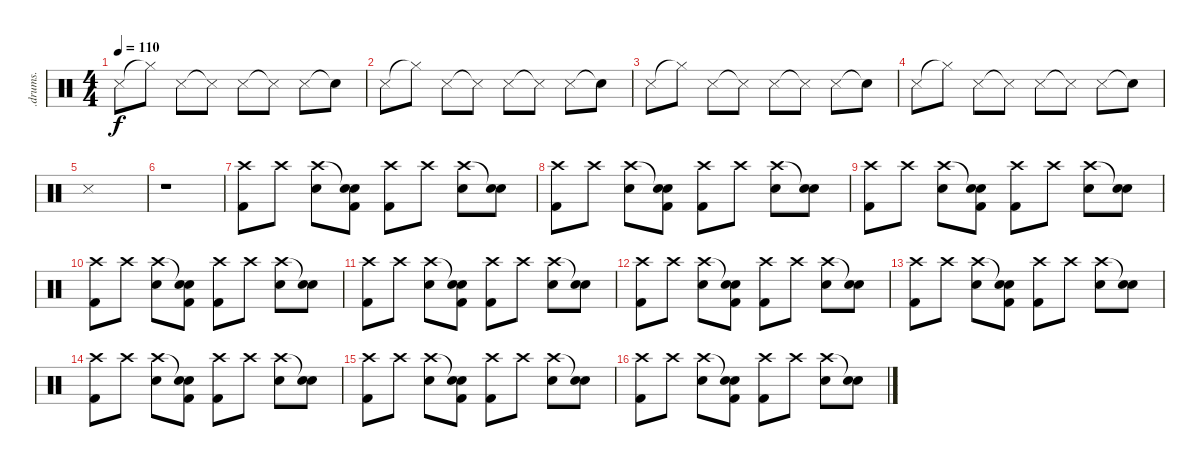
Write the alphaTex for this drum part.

\track (".drums." ".drums.") {instrument percussion}
\staff {score}
\articulation defaults
\ts (4 4)
\tempo 110
\clef neutral
\ks c "Snare (side stick) 3".8{dy f} "Hi-Hat (closed)"{t}.8 "Snare (side stick) 3".8 "Snare (side stick) 3"{t}.8 "Snare (side stick) 3".8 "Snare (side stick) 3"{t}.8 "Snare (side stick) 3".8 "Snare (hit)"{t}.8
|
"Snare (side stick) 3".8 "Hi-Hat (closed)"{t}.8 "Snare (side stick) 3".8 "Snare (side stick) 3"{t}.8 "Snare (side stick) 3".8 "Snare (side stick) 3"{t}.8 "Snare (side stick) 3".8 "Snare (hit)"{t}.8 |
"Snare (side stick) 3".8 "Hi-Hat (closed)"{t}.8 "Snare (side stick) 3".8 "Snare (side stick) 3"{t}.8 "Snare (side stick) 3".8 "Snare (side stick) 3"{t}.8 "Snare (side stick) 3".8 "Snare (hit)"{t}.8 |
"Snare (side stick) 3".8 "Hi-Hat (closed)"{t}.8 "Snare (side stick) 3".8 "Snare (side stick) 3"{t}.8 "Snare (side stick) 3".8 "Snare (side stick) 3"{t}.8 "Snare (side stick) 3".8 "Snare (hit)"{t}.8 |
"Snare (side stick) 3".1 |
r.1 |
("Crash high (hit)" "Kick (hit) 2").8 "Crash high (hit)".8 ("Crash high (hit)" "Snare (hit) 2").8 ("Snare (hit)"{t} "Snare (hit) 2" "Kick (hit) 2").8 ("Crash high (hit)" "Kick (hit) 2").8 "Crash high (hit)".8 ("Crash high (hit)" "Snare (hit) 2").8 ("Snare (hit)"{t} "Snare (hit) 2").8 |
("Crash high (hit)" "Kick (hit) 2").8 "Crash high (hit)".8 ("Crash high (hit)" "Snare (hit) 2").8 ("Snare (hit)"{t} "Snare (hit) 2" "Kick (hit) 2").8 ("Crash high (hit)" "Kick (hit) 2").8 "Crash high (hit)".8 ("Crash high (hit)" "Snare (hit) 2").8 ("Snare (hit)"{t} "Snare (hit) 2").8 |
("Crash high (hit)" "Kick (hit) 2").8 "Crash high (hit)".8 ("Crash high (hit)" "Snare (hit) 2").8 ("Snare (hit)"{t} "Snare (hit) 2" "Kick (hit) 2").8 ("Crash high (hit)" "Kick (hit) 2").8 "Crash high (hit)".8 ("Crash high (hit)" "Snare (hit) 2").8 ("Snare (hit)"{t} "Snare (hit) 2").8 |
("Crash high (hit)" "Kick (hit) 2").8 "Crash high (hit)".8 ("Crash high (hit)" "Snare (hit) 2").8 ("Snare (hit)"{t} "Snare (hit) 2" "Kick (hit) 2").8 ("Crash high (hit)" "Kick (hit) 2").8 "Crash high (hit)".8 ("Crash high (hit)" "Snare (hit) 2").8 ("Snare (hit)"{t} "Snare (hit) 2").8 |
("Crash high (hit)" "Kick (hit) 2").8 "Crash high (hit)".8 ("Crash high (hit)" "Snare (hit) 2").8 ("Snare (hit)"{t} "Snare (hit) 2" "Kick (hit) 2").8 ("Crash high (hit)" "Kick (hit) 2").8 "Crash high (hit)".8 ("Crash high (hit)" "Snare (hit) 2").8 ("Snare (hit)"{t} "Snare (hit) 2").8 |
("Crash high (hit)" "Kick (hit) 2").8 "Crash high (hit)".8 ("Crash high (hit)" "Snare (hit) 2").8 ("Snare (hit)"{t} "Snare (hit) 2" "Kick (hit) 2").8 ("Crash high (hit)" "Kick (hit) 2").8 "Crash high (hit)".8 ("Crash high (hit)" "Snare (hit) 2").8 ("Snare (hit)"{t} "Snare (hit) 2").8 |
("Crash high (hit)" "Kick (hit) 2").8 "Crash high (hit)".8 ("Crash high (hit)" "Snare (hit) 2").8 ("Snare (hit)"{t} "Snare (hit) 2" "Kick (hit) 2").8 ("Crash high (hit)" "Kick (hit) 2").8 "Crash high (hit)".8 ("Crash high (hit)" "Snare (hit) 2").8 ("Snare (hit)"{t} "Snare (hit) 2").8 |
("Crash high (hit)" "Kick (hit) 2").8 "Crash high (hit)".8 ("Crash high (hit)" "Snare (hit) 2").8 ("Snare (hit)"{t} "Snare (hit) 2" "Kick (hit) 2").8 ("Crash high (hit)" "Kick (hit) 2").8 "Crash high (hit)".8 ("Crash high (hit)" "Snare (hit) 2").8 ("Snare (hit)"{t} "Snare (hit) 2").8 |
("Crash high (hit)" "Kick (hit) 2").8 "Crash high (hit)".8 ("Crash high (hit)" "Snare (hit) 2").8 ("Snare (hit)"{t} "Snare (hit) 2" "Kick (hit) 2").8 ("Crash high (hit)" "Kick (hit) 2").8 "Crash high (hit)".8 ("Crash high (hit)" "Snare (hit) 2").8 ("Snare (hit)"{t} "Snare (hit) 2").8 |
("Crash high (hit)" "Kick (hit) 2").8 "Crash high (hit)".8 ("Crash high (hit)" "Snare (hit) 2").8 ("Snare (hit)"{t} "Snare (hit) 2" "Kick (hit) 2").8 ("Crash high (hit)" "Kick (hit) 2").8 "Crash high (hit)".8 ("Crash high (hit)" "Snare (hit) 2").8 ("Snare (hit)"{t} "Snare (hit) 2").8
